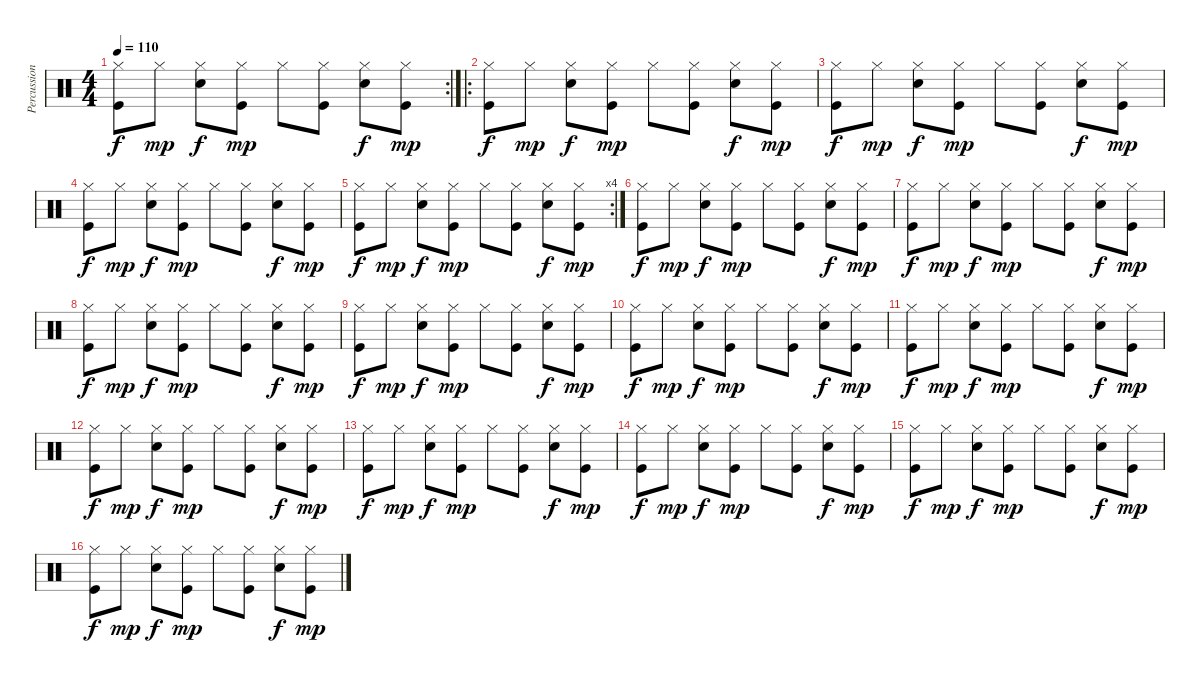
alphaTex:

\track ("Percussion" "Percussion") {instrument percussion}
\staff {score}
\articulation defaults
\rc 2
\ts (4 4)
\tempo 110
\clef neutral
\ks c
("Hi-Hat (closed)" "Kick (hit)").8{dy f} "Hi-Hat (closed)".8{dy mp} ("Hi-Hat (closed)" "Snare (hit) 2").8{dy f} ("Hi-Hat (closed)" "Kick (hit)").8{dy mp} "Hi-Hat (closed)".8 ("Hi-Hat (closed)" "Kick (hit)").8 ("Hi-Hat (closed)" "Snare (hit) 2").8{dy f} ("Hi-Hat (closed)" "Kick (hit)").8{dy mp} |
\ro
("Hi-Hat (closed)" "Kick (hit)").8{dy f} "Hi-Hat (closed)".8{dy mp} ("Hi-Hat (closed)" "Snare (hit) 2").8{dy f} ("Hi-Hat (closed)" "Kick (hit)").8{dy mp} "Hi-Hat (closed)".8 ("Hi-Hat (closed)" "Kick (hit)").8 ("Hi-Hat (closed)" "Snare (hit) 2").8{dy f} ("Hi-Hat (closed)" "Kick (hit)").8{dy mp} |
("Hi-Hat (closed)" "Kick (hit)").8{dy f} "Hi-Hat (closed)".8{dy mp} ("Hi-Hat (closed)" "Snare (hit) 2").8{dy f} ("Hi-Hat (closed)" "Kick (hit)").8{dy mp} "Hi-Hat (closed)".8 ("Hi-Hat (closed)" "Kick (hit)").8 ("Hi-Hat (closed)" "Snare (hit) 2").8{dy f} ("Hi-Hat (closed)" "Kick (hit)").8{dy mp} |
("Hi-Hat (closed)" "Kick (hit)").8{dy f} "Hi-Hat (closed)".8{dy mp} ("Hi-Hat (closed)" "Snare (hit) 2").8{dy f} ("Hi-Hat (closed)" "Kick (hit)").8{dy mp} "Hi-Hat (closed)".8 ("Hi-Hat (closed)" "Kick (hit)").8 ("Hi-Hat (closed)" "Snare (hit) 2").8{dy f} ("Hi-Hat (closed)" "Kick (hit)").8{dy mp} |
\rc 4
("Hi-Hat (closed)" "Kick (hit)").8{dy f} "Hi-Hat (closed)".8{dy mp} ("Hi-Hat (closed)" "Snare (hit) 2").8{dy f} ("Hi-Hat (closed)" "Kick (hit)").8{dy mp} "Hi-Hat (closed)".8 ("Hi-Hat (closed)" "Kick (hit)").8 ("Hi-Hat (closed)" "Snare (hit) 2").8{dy f} ("Hi-Hat (closed)" "Kick (hit)").8{dy mp} |
("Hi-Hat (closed)" "Kick (hit)").8{dy f} "Hi-Hat (closed)".8{dy mp} ("Hi-Hat (closed)" "Snare (hit) 2").8{dy f} ("Hi-Hat (closed)" "Kick (hit)").8{dy mp} "Hi-Hat (closed)".8 ("Hi-Hat (closed)" "Kick (hit)").8 ("Hi-Hat (closed)" "Snare (hit) 2").8{dy f} ("Hi-Hat (closed)" "Kick (hit)").8{dy mp} |
("Hi-Hat (closed)" "Kick (hit)").8{dy f} "Hi-Hat (closed)".8{dy mp} ("Hi-Hat (closed)" "Snare (hit) 2").8{dy f} ("Hi-Hat (closed)" "Kick (hit)").8{dy mp} "Hi-Hat (closed)".8 ("Hi-Hat (closed)" "Kick (hit)").8 ("Hi-Hat (closed)" "Snare (hit) 2").8{dy f} ("Hi-Hat (closed)" "Kick (hit)").8{dy mp} |
("Hi-Hat (closed)" "Kick (hit)").8{dy f} "Hi-Hat (closed)".8{dy mp} ("Hi-Hat (closed)" "Snare (hit) 2").8{dy f} ("Hi-Hat (closed)" "Kick (hit)").8{dy mp} "Hi-Hat (closed)".8 ("Hi-Hat (closed)" "Kick (hit)").8 ("Hi-Hat (closed)" "Snare (hit) 2").8{dy f} ("Hi-Hat (closed)" "Kick (hit)").8{dy mp} |
("Hi-Hat (closed)" "Kick (hit)").8{dy f} "Hi-Hat (closed)".8{dy mp} ("Hi-Hat (closed)" "Snare (hit) 2").8{dy f} ("Hi-Hat (closed)" "Kick (hit)").8{dy mp} "Hi-Hat (closed)".8 ("Hi-Hat (closed)" "Kick (hit)").8 ("Hi-Hat (closed)" "Snare (hit) 2").8{dy f} ("Hi-Hat (closed)" "Kick (hit)").8{dy mp} |
("Hi-Hat (closed)" "Kick (hit)").8{dy f} "Hi-Hat (closed)".8{dy mp} ("Hi-Hat (closed)" "Snare (hit) 2").8{dy f} ("Hi-Hat (closed)" "Kick (hit)").8{dy mp} "Hi-Hat (closed)".8 ("Hi-Hat (closed)" "Kick (hit)").8 ("Hi-Hat (closed)" "Snare (hit) 2").8{dy f} ("Hi-Hat (closed)" "Kick (hit)").8{dy mp} |
("Hi-Hat (closed)" "Kick (hit)").8{dy f} "Hi-Hat (closed)".8{dy mp} ("Hi-Hat (closed)" "Snare (hit) 2").8{dy f} ("Hi-Hat (closed)" "Kick (hit)").8{dy mp} "Hi-Hat (closed)".8 ("Hi-Hat (closed)" "Kick (hit)").8 ("Hi-Hat (closed)" "Snare (hit) 2").8{dy f} ("Hi-Hat (closed)" "Kick (hit)").8{dy mp} |
("Hi-Hat (closed)" "Kick (hit)").8{dy f} "Hi-Hat (closed)".8{dy mp} ("Hi-Hat (closed)" "Snare (hit) 2").8{dy f} ("Hi-Hat (closed)" "Kick (hit)").8{dy mp} "Hi-Hat (closed)".8 ("Hi-Hat (closed)" "Kick (hit)").8 ("Hi-Hat (closed)" "Snare (hit) 2").8{dy f} ("Hi-Hat (closed)" "Kick (hit)").8{dy mp} |
("Hi-Hat (closed)" "Kick (hit)").8{dy f} "Hi-Hat (closed)".8{dy mp} ("Hi-Hat (closed)" "Snare (hit) 2").8{dy f} ("Hi-Hat (closed)" "Kick (hit)").8{dy mp} "Hi-Hat (closed)".8 ("Hi-Hat (closed)" "Kick (hit)").8 ("Hi-Hat (closed)" "Snare (hit) 2").8{dy f} ("Hi-Hat (closed)" "Kick (hit)").8{dy mp} |
("Hi-Hat (closed)" "Kick (hit)").8{dy f} "Hi-Hat (closed)".8{dy mp} ("Hi-Hat (closed)" "Snare (hit) 2").8{dy f} ("Hi-Hat (closed)" "Kick (hit)").8{dy mp} "Hi-Hat (closed)".8 ("Hi-Hat (closed)" "Kick (hit)").8 ("Hi-Hat (closed)" "Snare (hit) 2").8{dy f} ("Hi-Hat (closed)" "Kick (hit)").8{dy mp} |
("Hi-Hat (closed)" "Kick (hit)").8{dy f} "Hi-Hat (closed)".8{dy mp} ("Hi-Hat (closed)" "Snare (hit) 2").8{dy f} ("Hi-Hat (closed)" "Kick (hit)").8{dy mp} "Hi-Hat (closed)".8 ("Hi-Hat (closed)" "Kick (hit)").8 ("Hi-Hat (closed)" "Snare (hit) 2").8{dy f} ("Hi-Hat (closed)" "Kick (hit)").8{dy mp} |
("Hi-Hat (closed)" "Kick (hit)").8{dy f} "Hi-Hat (closed)".8{dy mp} ("Hi-Hat (closed)" "Snare (hit) 2").8{dy f} ("Hi-Hat (closed)" "Kick (hit)").8{dy mp} "Hi-Hat (closed)".8 ("Hi-Hat (closed)" "Kick (hit)").8 ("Hi-Hat (closed)" "Snare (hit) 2").8{dy f} ("Hi-Hat (closed)" "Kick (hit)").8{dy mp}
